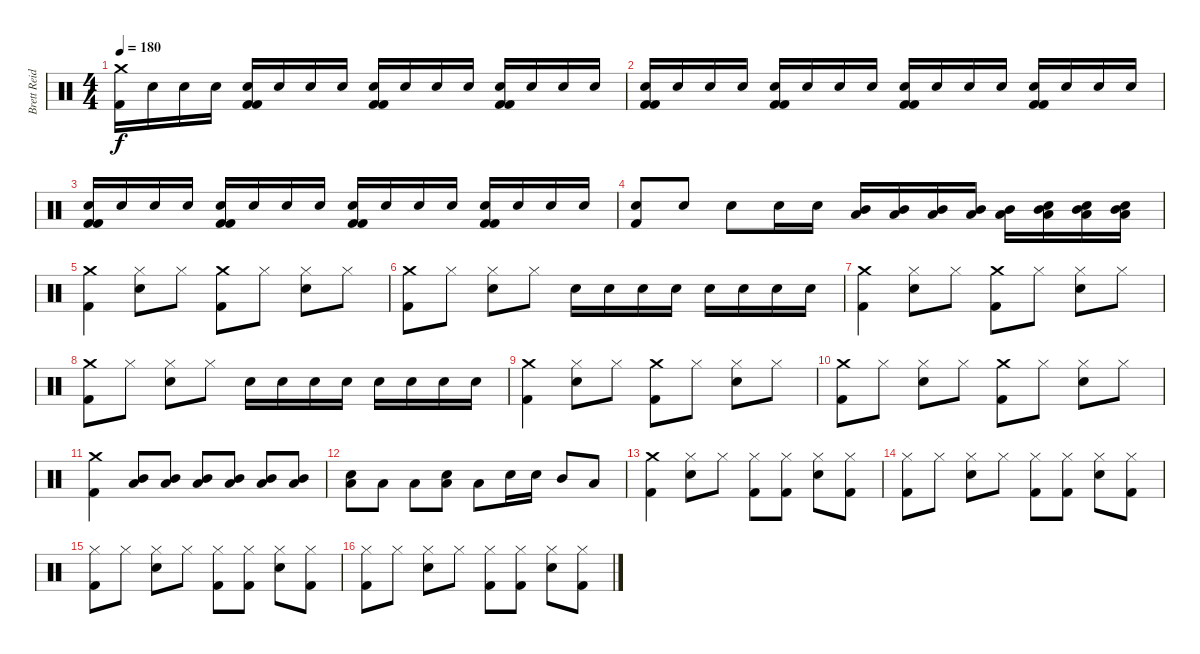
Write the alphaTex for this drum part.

\track ("Brett Reid" "Brett Reid") {instrument percussion}
\staff {score}
\articulation defaults
\ts (4 4)
\tempo 180
\clef neutral
\ks c
("Crash medium (hit)" "Kick (hit) 2").16{dy f} "Snare (hit) 2".16 "Snare (hit) 2".16 "Snare (hit) 2".16 ("Kick (hit) 2" "Snare (hit) 2" "Kick (hit) 2").16 "Snare (hit) 2".16 "Snare (hit) 2".16 "Snare (hit) 2".16 ("Kick (hit) 2" "Snare (hit) 2" "Kick (hit) 2").16 "Snare (hit) 2".16 "Snare (hit) 2".16 "Snare (hit) 2".16 ("Kick (hit) 2" "Snare (hit) 2" "Kick (hit) 2").16 "Snare (hit) 2".16 "Snare (hit) 2".16 "Snare (hit) 2".16 |
("Kick (hit) 2" "Snare (hit) 2" "Kick (hit) 2").16 "Snare (hit) 2".16 "Snare (hit) 2".16 "Snare (hit) 2".16 ("Kick (hit) 2" "Snare (hit) 2" "Kick (hit) 2").16 "Snare (hit) 2".16 "Snare (hit) 2".16 "Snare (hit) 2".16 ("Kick (hit) 2" "Snare (hit) 2" "Kick (hit) 2").16 "Snare (hit) 2".16 "Snare (hit) 2".16 "Snare (hit) 2".16 ("Kick (hit) 2" "Snare (hit) 2" "Kick (hit) 2").16 "Snare (hit) 2".16 "Snare (hit) 2".16 "Snare (hit) 2".16 |
("Kick (hit) 2" "Snare (hit) 2" "Kick (hit) 2").16 "Snare (hit) 2".16 "Snare (hit) 2".16 "Snare (hit) 2".16 ("Kick (hit) 2" "Snare (hit) 2" "Kick (hit) 2").16 "Snare (hit) 2".16 "Snare (hit) 2".16 "Snare (hit) 2".16 ("Kick (hit) 2" "Snare (hit) 2" "Kick (hit) 2").16 "Snare (hit) 2".16 "Snare (hit) 2".16 "Snare (hit) 2".16 ("Kick (hit) 2" "Snare (hit) 2" "Kick (hit) 2").16 "Snare (hit) 2".16 "Snare (hit) 2".16 "Snare (hit) 2".16 |
("Snare (hit) 2" "Kick (hit) 2").8 "Snare (hit) 2".8 "Snare (hit) 2".8 "Snare (hit) 2".16 "Snare (hit) 2".16 ("Mid Tom (hit)" "Low Floor Tom (hit)").16 ("Mid Tom (hit)" "Low Floor Tom (hit)").16 ("Mid Tom (hit)" "Low Floor Tom (hit)").16 ("Mid Tom (hit)" "Low Floor Tom (hit)").16 ("Mid Tom (hit)" "Low Floor Tom (hit)").16 ("Mid Tom (hit)" "Low Floor Tom (hit)" "Snare (hit) 2").16 ("Mid Tom (hit)" "Low Floor Tom (hit)" "Snare (hit) 2").16 ("Mid Tom (hit)" "Low Floor Tom (hit)" "Snare (hit) 2").16 |
("Crash medium (hit)" "Kick (hit) 2").4 ("Hi-Hat (closed)" "Snare (hit) 2").8 "Hi-Hat (closed)".8 ("Crash medium (hit)" "Kick (hit) 2").8 "Hi-Hat (closed)".8 ("Hi-Hat (closed)" "Snare (hit) 2").8 "Hi-Hat (closed)".8 |
("Crash medium (hit)" "Kick (hit) 2").8 "Hi-Hat (closed)".8 ("Hi-Hat (closed)" "Snare (hit) 2").8 "Hi-Hat (closed)".8 "Snare (hit) 2".16 "Snare (hit) 2".16 "Snare (hit) 2".16 "Snare (hit) 2".16 "Snare (hit) 2".16 "Snare (hit) 2".16 "Snare (hit) 2".16 "Snare (hit) 2".16 |
("Crash medium (hit)" "Kick (hit) 2").4 ("Hi-Hat (closed)" "Snare (hit) 2").8 "Hi-Hat (closed)".8 ("Crash medium (hit)" "Kick (hit) 2").8 "Hi-Hat (closed)".8 ("Hi-Hat (closed)" "Snare (hit) 2").8 "Hi-Hat (closed)".8 |
("Crash medium (hit)" "Kick (hit) 2").8 "Hi-Hat (closed)".8 ("Hi-Hat (closed)" "Snare (hit) 2").8 "Hi-Hat (closed)".8 "Snare (hit) 2".16 "Snare (hit) 2".16 "Snare (hit) 2".16 "Snare (hit) 2".16 "Snare (hit) 2".16 "Snare (hit) 2".16 "Snare (hit) 2".16 "Snare (hit) 2".16 |
("Crash medium (hit)" "Kick (hit) 2").4 ("Hi-Hat (closed)" "Snare (hit) 2").8 "Hi-Hat (closed)".8 ("Crash medium (hit)" "Kick (hit) 2").8 "Hi-Hat (closed)".8 ("Hi-Hat (closed)" "Snare (hit) 2").8 "Hi-Hat (closed)".8 |
("Crash medium (hit)" "Kick (hit) 2").8 "Hi-Hat (closed)".8 ("Hi-Hat (closed)" "Snare (hit) 2").8 "Hi-Hat (closed)".8 ("Crash medium (hit)" "Kick (hit) 2").8 "Hi-Hat (closed)".8 ("Hi-Hat (closed)" "Snare (hit) 2").8 "Hi-Hat (closed)".8 |
("Crash medium (hit)" "Kick (hit) 2").4 ("Low Floor Tom (hit)" "Mid Tom (hit)").8 ("Low Floor Tom (hit)" "Mid Tom (hit)").8 ("Low Floor Tom (hit)" "Mid Tom (hit)").8 ("Low Floor Tom (hit)" "Mid Tom (hit)").8 ("Low Floor Tom (hit)" "Mid Tom (hit)").8 ("Low Floor Tom (hit)" "Mid Tom (hit)").8 |
("Low Floor Tom (hit)" "Snare (hit) 2").8 "Low Floor Tom (hit)".8 "Low Floor Tom (hit)".8 ("Low Floor Tom (hit)" "Snare (hit) 2").8 "Low Floor Tom (hit)".8 "Snare (hit) 2".16 "Snare (hit) 2".16 "Mid Tom (hit)".8 "Low Floor Tom (hit)".8 |
("Crash medium (hit)" "Kick (hit) 2").4 ("Hi-Hat (closed)" "Snare (hit) 2").8 "Hi-Hat (closed)".8 ("Hi-Hat (closed)" "Kick (hit) 2").8 ("Hi-Hat (closed)" "Kick (hit) 2").8 ("Hi-Hat (closed)" "Snare (hit) 2").8 ("Hi-Hat (closed)" "Kick (hit) 2").8 |
("Hi-Hat (closed)" "Kick (hit) 2").8 "Hi-Hat (closed)".8 ("Hi-Hat (closed)" "Snare (hit) 2").8 "Hi-Hat (closed)".8 ("Hi-Hat (closed)" "Kick (hit) 2").8 ("Hi-Hat (closed)" "Kick (hit) 2").8 ("Hi-Hat (closed)" "Snare (hit) 2").8 ("Hi-Hat (closed)" "Kick (hit) 2").8 |
("Hi-Hat (closed)" "Kick (hit) 2").8 "Hi-Hat (closed)".8 ("Hi-Hat (closed)" "Snare (hit) 2").8 "Hi-Hat (closed)".8 ("Hi-Hat (closed)" "Kick (hit) 2").8 ("Hi-Hat (closed)" "Kick (hit) 2").8 ("Hi-Hat (closed)" "Snare (hit) 2").8 ("Hi-Hat (closed)" "Kick (hit) 2").8 |
("Hi-Hat (closed)" "Kick (hit) 2").8 "Hi-Hat (closed)".8 ("Hi-Hat (closed)" "Snare (hit) 2").8 "Hi-Hat (closed)".8 ("Hi-Hat (closed)" "Kick (hit) 2").8 ("Hi-Hat (closed)" "Kick (hit) 2").8 ("Hi-Hat (closed)" "Snare (hit) 2").8 ("Hi-Hat (closed)" "Kick (hit) 2").8
